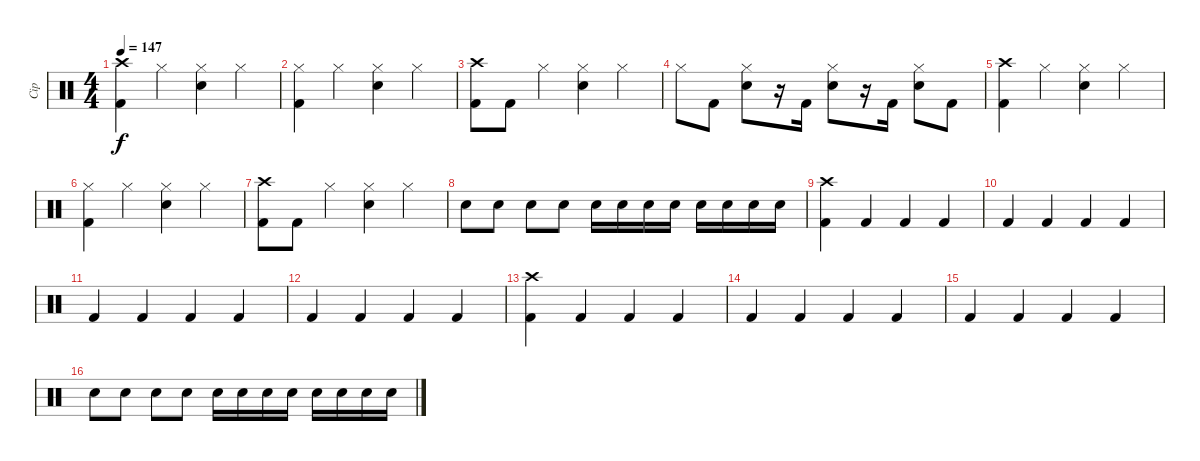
\track ("Cip" "Cip") {instrument percussion}
\staff {score}
\articulation defaults
\ts (4 4)
\tempo 147
\clef neutral
\ks c
("Crash high (hit)" "Kick (hit) 2").4{dy f} "Hi-Hat (closed)".4 ("Hi-Hat (closed)" "Electric Snare (hit)").4 "Hi-Hat (closed)".4 |
("Hi-Hat (closed)" "Kick (hit) 2").4 "Hi-Hat (closed)".4 ("Hi-Hat (closed)" "Electric Snare (hit)").4 "Hi-Hat (closed)".4 |
("Crash high (hit)" "Kick (hit) 2").8 "Kick (hit) 2".8 "Hi-Hat (closed)".4 ("Hi-Hat (closed)" "Electric Snare (hit)").4 "Hi-Hat (closed)".4 |
"Hi-Hat (closed)".8 "Kick (hit) 2".8 ("Hi-Hat (closed)" "Electric Snare (hit)").8 r.16 "Kick (hit) 2".16 ("Hi-Hat (closed)" "Electric Snare (hit)").8 r.16 "Kick (hit) 2".16 ("Hi-Hat (closed)" "Electric Snare (hit)").8 "Kick (hit) 2".8 |
("Crash high (hit)" "Kick (hit) 2").4 "Hi-Hat (closed)".4 ("Hi-Hat (closed)" "Electric Snare (hit)").4 "Hi-Hat (closed)".4 |
("Hi-Hat (closed)" "Kick (hit) 2").4 "Hi-Hat (closed)".4 ("Hi-Hat (closed)" "Electric Snare (hit)").4 "Hi-Hat (closed)".4 |
("Crash high (hit)" "Kick (hit) 2").8 "Kick (hit) 2".8 "Hi-Hat (closed)".4 ("Hi-Hat (closed)" "Electric Snare (hit)").4 "Hi-Hat (closed)".4 |
"Electric Snare (hit)".8 "Electric Snare (hit)".8 "Electric Snare (hit)".8 "Electric Snare (hit)".8 "Electric Snare (hit)".16 "Electric Snare (hit)".16 "Electric Snare (hit)".16 "Electric Snare (hit)".16 "Electric Snare (hit)".16 "Electric Snare (hit)".16 "Electric Snare (hit)".16 "Electric Snare (hit)".16 |
("Crash high (hit)" "Kick (hit) 2").4 "Kick (hit) 2".4 "Kick (hit) 2".4 "Kick (hit) 2".4 |
"Kick (hit) 2".4 "Kick (hit) 2".4 "Kick (hit) 2".4 "Kick (hit) 2".4 |
"Kick (hit) 2".4 "Kick (hit) 2".4 "Kick (hit) 2".4 "Kick (hit) 2".4 |
"Kick (hit) 2".4 "Kick (hit) 2".4 "Kick (hit) 2".4 "Kick (hit) 2".4 |
("Crash high (hit)" "Kick (hit) 2").4 "Kick (hit) 2".4 "Kick (hit) 2".4 "Kick (hit) 2".4 |
"Kick (hit) 2".4 "Kick (hit) 2".4 "Kick (hit) 2".4 "Kick (hit) 2".4 |
"Kick (hit) 2".4 "Kick (hit) 2".4 "Kick (hit) 2".4 "Kick (hit) 2".4 |
"Electric Snare (hit)".8 "Electric Snare (hit)".8 "Electric Snare (hit)".8 "Electric Snare (hit)".8 "Electric Snare (hit)".16 "Electric Snare (hit)".16 "Electric Snare (hit)".16 "Electric Snare (hit)".16 "Electric Snare (hit)".16 "Electric Snare (hit)".16 "Electric Snare (hit)".16 "Electric Snare (hit)".16
